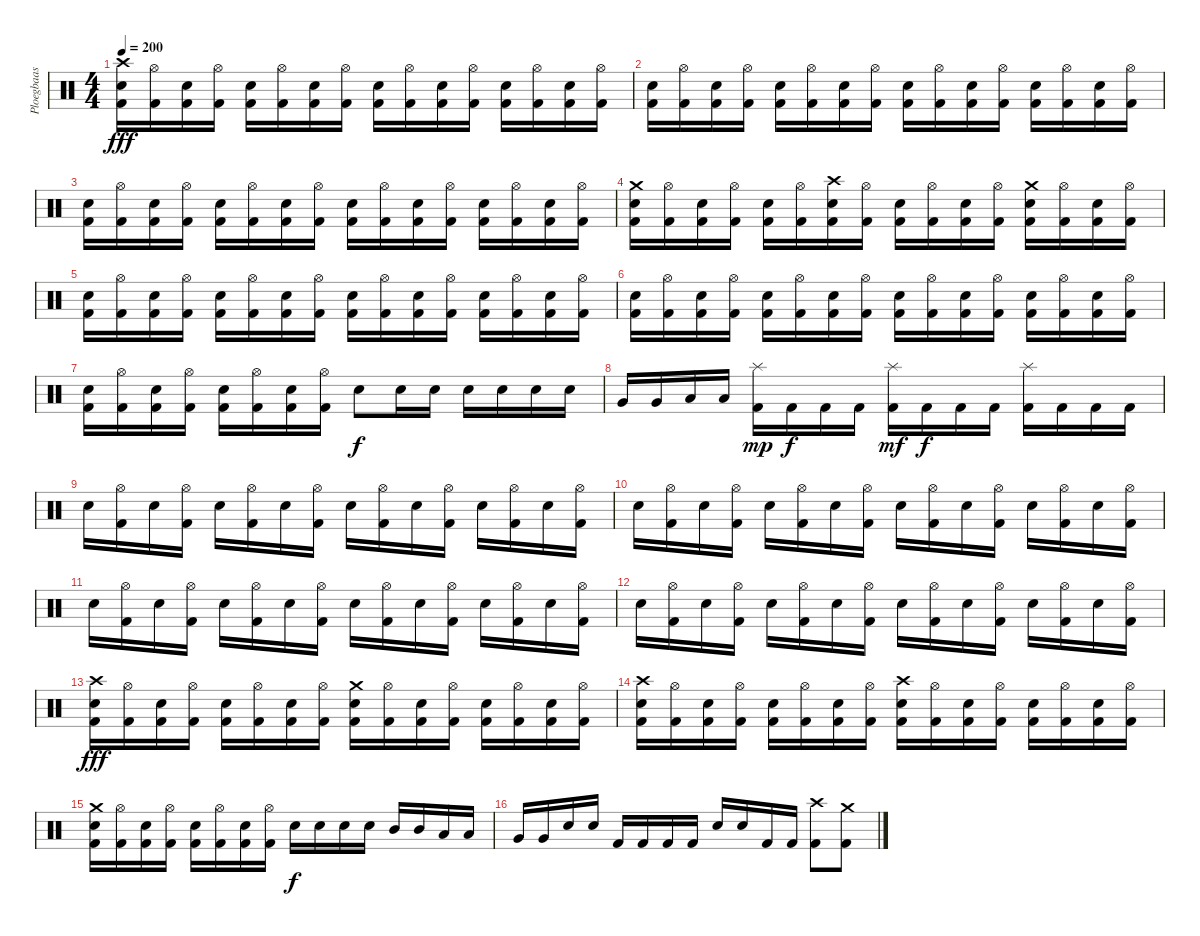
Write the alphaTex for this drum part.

\track ("Ploegbaas" "Ploegbaas") {instrument percussion}
\staff {score}
\articulation defaults
\ts (4 4)
\tempo 200
\clef neutral
\ks c
("Crash high (hit)" "Electric Snare (hit)" "Kick (hit) 2").16{dy fff} ("Hi-Hat (open)" "Kick (hit) 2").16 ("Electric Snare (hit)" "Kick (hit) 2").16 ("Hi-Hat (open)" "Kick (hit) 2").16 ("Electric Snare (hit)" "Kick (hit) 2").16 ("Hi-Hat (open)" "Kick (hit) 2").16 ("Electric Snare (hit)" "Kick (hit) 2").16 ("Hi-Hat (open)" "Kick (hit) 2").16 ("Electric Snare (hit)" "Kick (hit) 2").16 ("Hi-Hat (open)" "Kick (hit) 2").16 ("Electric Snare (hit)" "Kick (hit) 2").16 ("Hi-Hat (open)" "Kick (hit) 2").16 ("Electric Snare (hit)" "Kick (hit) 2").16 ("Hi-Hat (open)" "Kick (hit) 2").16 ("Electric Snare (hit)" "Kick (hit) 2").16 ("Hi-Hat (open)" "Kick (hit) 2").16 |
("Electric Snare (hit)" "Kick (hit) 2").16 ("Hi-Hat (open)" "Kick (hit) 2").16 ("Electric Snare (hit)" "Kick (hit) 2").16 ("Hi-Hat (open)" "Kick (hit) 2").16 ("Electric Snare (hit)" "Kick (hit) 2").16 ("Hi-Hat (open)" "Kick (hit) 2").16 ("Electric Snare (hit)" "Kick (hit) 2").16 ("Hi-Hat (open)" "Kick (hit) 2").16 ("Electric Snare (hit)" "Kick (hit) 2").16 ("Hi-Hat (open)" "Kick (hit) 2").16 ("Electric Snare (hit)" "Kick (hit) 2").16 ("Hi-Hat (open)" "Kick (hit) 2").16 ("Electric Snare (hit)" "Kick (hit) 2").16 ("Hi-Hat (open)" "Kick (hit) 2").16 ("Electric Snare (hit)" "Kick (hit) 2").16 ("Hi-Hat (open)" "Kick (hit) 2").16 |
("Electric Snare (hit)" "Kick (hit) 2").16 ("Hi-Hat (open)" "Kick (hit) 2").16 ("Electric Snare (hit)" "Kick (hit) 2").16 ("Hi-Hat (open)" "Kick (hit) 2").16 ("Electric Snare (hit)" "Kick (hit) 2").16 ("Hi-Hat (open)" "Kick (hit) 2").16 ("Electric Snare (hit)" "Kick (hit) 2").16 ("Hi-Hat (open)" "Kick (hit) 2").16 ("Electric Snare (hit)" "Kick (hit) 2").16 ("Hi-Hat (open)" "Kick (hit) 2").16 ("Electric Snare (hit)" "Kick (hit) 2").16 ("Hi-Hat (open)" "Kick (hit) 2").16 ("Electric Snare (hit)" "Kick (hit) 2").16 ("Hi-Hat (open)" "Kick (hit) 2").16 ("Electric Snare (hit)" "Kick (hit) 2").16 ("Hi-Hat (open)" "Kick (hit) 2").16 |
("Crash medium (hit)" "Electric Snare (hit)" "Kick (hit) 2").16 ("Hi-Hat (open)" "Kick (hit) 2").16 ("Electric Snare (hit)" "Kick (hit) 2").16 ("Hi-Hat (open)" "Kick (hit) 2").16 ("Electric Snare (hit)" "Kick (hit) 2").16 ("Hi-Hat (open)" "Kick (hit) 2").16 ("Crash high (hit)" "Electric Snare (hit)" "Kick (hit) 2").16 ("Hi-Hat (open)" "Kick (hit) 2").16 ("Electric Snare (hit)" "Kick (hit) 2").16 ("Hi-Hat (open)" "Kick (hit) 2").16 ("Electric Snare (hit)" "Kick (hit) 2").16 ("Hi-Hat (open)" "Kick (hit) 2").16 ("Crash medium (hit)" "Electric Snare (hit)" "Kick (hit) 2").16 ("Hi-Hat (open)" "Kick (hit) 2").16 ("Electric Snare (hit)" "Kick (hit) 2").16 ("Hi-Hat (open)" "Kick (hit) 2").16 |
("Electric Snare (hit)" "Kick (hit) 2").16 ("Hi-Hat (open)" "Kick (hit) 2").16 ("Electric Snare (hit)" "Kick (hit) 2").16 ("Hi-Hat (open)" "Kick (hit) 2").16 ("Electric Snare (hit)" "Kick (hit) 2").16 ("Hi-Hat (open)" "Kick (hit) 2").16 ("Electric Snare (hit)" "Kick (hit) 2").16 ("Hi-Hat (open)" "Kick (hit) 2").16 ("Electric Snare (hit)" "Kick (hit) 2").16 ("Hi-Hat (open)" "Kick (hit) 2").16 ("Electric Snare (hit)" "Kick (hit) 2").16 ("Hi-Hat (open)" "Kick (hit) 2").16 ("Electric Snare (hit)" "Kick (hit) 2").16 ("Hi-Hat (open)" "Kick (hit) 2").16 ("Electric Snare (hit)" "Kick (hit) 2").16 ("Hi-Hat (open)" "Kick (hit) 2").16 |
("Electric Snare (hit)" "Kick (hit) 2").16 ("Hi-Hat (open)" "Kick (hit) 2").16 ("Electric Snare (hit)" "Kick (hit) 2").16 ("Hi-Hat (open)" "Kick (hit) 2").16 ("Electric Snare (hit)" "Kick (hit) 2").16 ("Hi-Hat (open)" "Kick (hit) 2").16 ("Electric Snare (hit)" "Kick (hit) 2").16 ("Hi-Hat (open)" "Kick (hit) 2").16 ("Electric Snare (hit)" "Kick (hit) 2").16 ("Hi-Hat (open)" "Kick (hit) 2").16 ("Electric Snare (hit)" "Kick (hit) 2").16 ("Hi-Hat (open)" "Kick (hit) 2").16 ("Electric Snare (hit)" "Kick (hit) 2").16 ("Hi-Hat (open)" "Kick (hit) 2").16 ("Electric Snare (hit)" "Kick (hit) 2").16 ("Hi-Hat (open)" "Kick (hit) 2").16 |
("Electric Snare (hit)" "Kick (hit) 2").16 ("Hi-Hat (open)" "Kick (hit) 2").16 ("Electric Snare (hit)" "Kick (hit) 2").16 ("Hi-Hat (open)" "Kick (hit) 2").16 ("Electric Snare (hit)" "Kick (hit) 2").16 ("Hi-Hat (open)" "Kick (hit) 2").16 ("Electric Snare (hit)" "Kick (hit) 2").16 ("Hi-Hat (open)" "Kick (hit) 2").16 "Electric Snare (hit)".8{dy f} "Electric Snare (hit)".16 "Electric Snare (hit)".16 "Electric Snare (hit)".16 "Electric Snare (hit)".16 "Electric Snare (hit)".16 "Electric Snare (hit)".16 |
"Very Low Tom (hit)".16 "Very Low Tom (hit)".16 "Low Floor Tom (hit)".16 "Low Floor Tom (hit)".16 ("Splash (hit)" "Kick (hit) 2").16{dy mp} "Kick (hit) 2".16{dy f} "Kick (hit) 2".16 "Kick (hit) 2".16 ("Splash (hit)" "Kick (hit) 2").16{dy mf} "Kick (hit) 2".16{dy f} "Kick (hit) 2".16 "Kick (hit) 2".16 ("Splash (hit)" "Kick (hit) 2").16 "Kick (hit) 2".16 "Kick (hit) 2".16 "Kick (hit) 2".16 |
"Electric Snare (hit)".16 ("Hi-Hat (open)" "Kick (hit) 2").16 "Electric Snare (hit)".16 ("Hi-Hat (open)" "Kick (hit) 2").16 "Electric Snare (hit)".16 ("Hi-Hat (open)" "Kick (hit) 2").16 "Electric Snare (hit)".16 ("Hi-Hat (open)" "Kick (hit) 2").16 "Electric Snare (hit)".16 ("Hi-Hat (open)" "Kick (hit) 2").16 "Electric Snare (hit)".16 ("Hi-Hat (open)" "Kick (hit) 2").16 "Electric Snare (hit)".16 ("Hi-Hat (open)" "Kick (hit) 2").16 "Electric Snare (hit)".16 ("Hi-Hat (open)" "Kick (hit) 2").16 |
"Electric Snare (hit)".16 ("Hi-Hat (open)" "Kick (hit) 2").16 "Electric Snare (hit)".16 ("Hi-Hat (open)" "Kick (hit) 2").16 "Electric Snare (hit)".16 ("Hi-Hat (open)" "Kick (hit) 2").16 "Electric Snare (hit)".16 ("Hi-Hat (open)" "Kick (hit) 2").16 "Electric Snare (hit)".16 ("Hi-Hat (open)" "Kick (hit) 2").16 "Electric Snare (hit)".16 ("Hi-Hat (open)" "Kick (hit) 2").16 "Electric Snare (hit)".16 ("Hi-Hat (open)" "Kick (hit) 2").16 "Electric Snare (hit)".16 ("Hi-Hat (open)" "Kick (hit) 2").16 |
"Electric Snare (hit)".16 ("Hi-Hat (open)" "Kick (hit) 2").16 "Electric Snare (hit)".16 ("Hi-Hat (open)" "Kick (hit) 2").16 "Electric Snare (hit)".16 ("Hi-Hat (open)" "Kick (hit) 2").16 "Electric Snare (hit)".16 ("Hi-Hat (open)" "Kick (hit) 2").16 "Electric Snare (hit)".16 ("Hi-Hat (open)" "Kick (hit) 2").16 "Electric Snare (hit)".16 ("Hi-Hat (open)" "Kick (hit) 2").16 "Electric Snare (hit)".16 ("Hi-Hat (open)" "Kick (hit) 2").16 "Electric Snare (hit)".16 ("Hi-Hat (open)" "Kick (hit) 2").16 |
"Electric Snare (hit)".16 ("Hi-Hat (open)" "Kick (hit) 2").16 "Electric Snare (hit)".16 ("Hi-Hat (open)" "Kick (hit) 2").16 "Electric Snare (hit)".16 ("Hi-Hat (open)" "Kick (hit) 2").16 "Electric Snare (hit)".16 ("Hi-Hat (open)" "Kick (hit) 2").16 "Electric Snare (hit)".16 ("Hi-Hat (open)" "Kick (hit) 2").16 "Electric Snare (hit)".16 ("Hi-Hat (open)" "Kick (hit) 2").16 "Electric Snare (hit)".16 ("Hi-Hat (open)" "Kick (hit) 2").16 "Electric Snare (hit)".16 ("Hi-Hat (open)" "Kick (hit) 2").16 |
("Crash high (hit)" "Electric Snare (hit)" "Kick (hit) 2").16{dy fff} ("Hi-Hat (open)" "Kick (hit) 2").16 ("Electric Snare (hit)" "Kick (hit) 2").16 ("Hi-Hat (open)" "Kick (hit) 2").16 ("Electric Snare (hit)" "Kick (hit) 2").16 ("Hi-Hat (open)" "Kick (hit) 2").16 ("Electric Snare (hit)" "Kick (hit) 2").16 ("Hi-Hat (open)" "Kick (hit) 2").16 ("Crash medium (hit)" "Electric Snare (hit)" "Kick (hit) 2").16 ("Hi-Hat (open)" "Kick (hit) 2").16 ("Electric Snare (hit)" "Kick (hit) 2").16 ("Hi-Hat (open)" "Kick (hit) 2").16 ("Electric Snare (hit)" "Kick (hit) 2").16 ("Hi-Hat (open)" "Kick (hit) 2").16 ("Electric Snare (hit)" "Kick (hit) 2").16 ("Hi-Hat (open)" "Kick (hit) 2").16 |
("Crash high (hit)" "Electric Snare (hit)" "Kick (hit) 2").16 ("Hi-Hat (open)" "Kick (hit) 2").16 ("Electric Snare (hit)" "Kick (hit) 2").16 ("Hi-Hat (open)" "Kick (hit) 2").16 ("Electric Snare (hit)" "Kick (hit) 2").16 ("Hi-Hat (open)" "Kick (hit) 2").16 ("Electric Snare (hit)" "Kick (hit) 2").16 ("Hi-Hat (open)" "Kick (hit) 2").16 ("Crash high (hit)" "Electric Snare (hit)" "Kick (hit) 2").16 ("Hi-Hat (open)" "Kick (hit) 2").16 ("Electric Snare (hit)" "Kick (hit) 2").16 ("Hi-Hat (open)" "Kick (hit) 2").16 ("Electric Snare (hit)" "Kick (hit) 2").16 ("Hi-Hat (open)" "Kick (hit) 2").16 ("Electric Snare (hit)" "Kick (hit) 2").16 ("Hi-Hat (open)" "Kick (hit) 2").16 |
("Crash medium (hit)" "Electric Snare (hit)" "Kick (hit) 2").16 ("Hi-Hat (open)" "Kick (hit) 2").16 ("Electric Snare (hit)" "Kick (hit) 2").16 ("Hi-Hat (open)" "Kick (hit) 2").16 ("Electric Snare (hit)" "Kick (hit) 2").16 ("Hi-Hat (open)" "Kick (hit) 2").16 ("Electric Snare (hit)" "Kick (hit) 2").16 ("Hi-Hat (open)" "Kick (hit) 2").16 "Electric Snare (hit)".16{dy f} "Electric Snare (hit)".16 "Electric Snare (hit)".16 "Electric Snare (hit)".16 "Mid Tom (hit)".16 "Mid Tom (hit)".16 "Low Tom (hit)".16 "Low Tom (hit)".16 |
"Very Low Tom (hit)".16 "Very Low Tom (hit)".16 "Electric Snare (hit)".16 "Electric Snare (hit)".16 "Kick (hit) 2".16 "Kick (hit) 2".16 "Kick (hit) 2".16 "Kick (hit) 2".16 "Electric Snare (hit)".16 "Electric Snare (hit)".16 "Kick (hit) 2".16 "Kick (hit) 2".16 ("Crash high (hit)" "Kick (hit) 2").8 ("Crash medium (hit)" "Kick (hit) 2").8
